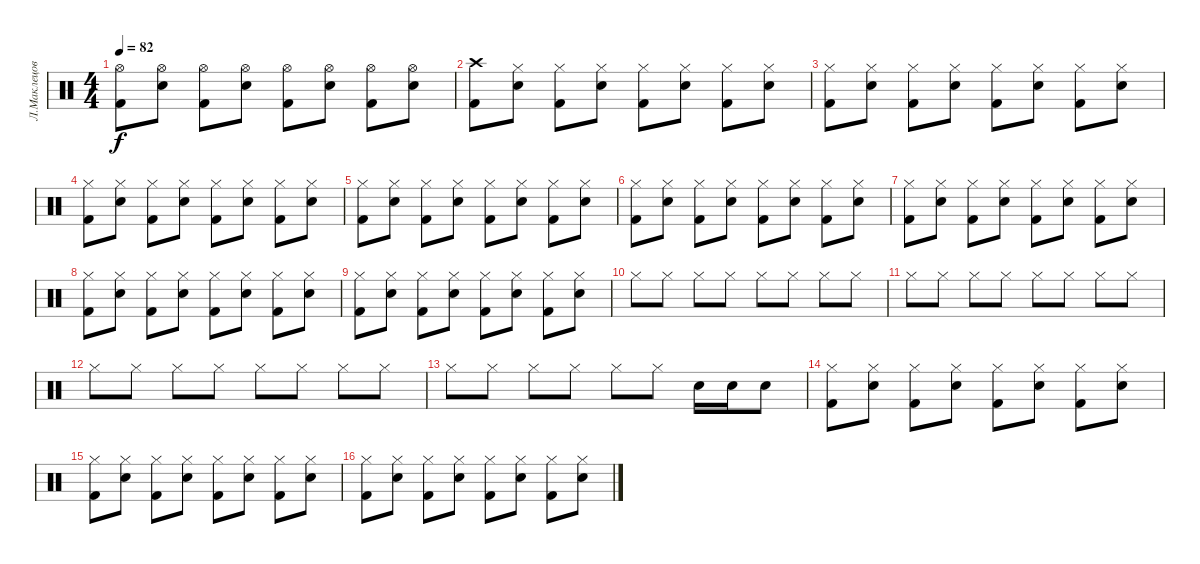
\track ("Л.Маклецова" "Л.Маклецов") {instrument percussion}
\staff {score}
\articulation defaults
\ts (4 4)
\tempo 82
\clef neutral
\ks c
("Hi-Hat (open)" "Kick (hit) 2").8{dy f} ("Hi-Hat (open)" "Snare (hit) 2").8 ("Hi-Hat (open)" "Kick (hit) 2").8 ("Hi-Hat (open)" "Snare (hit) 2").8 ("Hi-Hat (open)" "Kick (hit) 2").8 ("Hi-Hat (open)" "Snare (hit) 2").8 ("Hi-Hat (open)" "Kick (hit) 2").8 ("Hi-Hat (open)" "Snare (hit) 2").8 |
("Crash high (hit)" "Kick (hit) 2").8 ("Hi-Hat (closed)" "Snare (hit) 2").8 ("Hi-Hat (closed)" "Kick (hit) 2").8 ("Hi-Hat (closed)" "Snare (hit) 2").8 ("Hi-Hat (closed)" "Kick (hit) 2").8 ("Hi-Hat (closed)" "Snare (hit) 2").8 ("Hi-Hat (closed)" "Kick (hit) 2").8 ("Hi-Hat (closed)" "Snare (hit) 2").8 |
("Hi-Hat (closed)" "Kick (hit) 2").8 ("Hi-Hat (closed)" "Snare (hit) 2").8 ("Hi-Hat (closed)" "Kick (hit) 2").8 ("Hi-Hat (closed)" "Snare (hit) 2").8 ("Hi-Hat (closed)" "Kick (hit) 2").8 ("Hi-Hat (closed)" "Snare (hit) 2").8 ("Hi-Hat (closed)" "Kick (hit) 2").8 ("Hi-Hat (closed)" "Snare (hit) 2").8 |
("Hi-Hat (closed)" "Kick (hit) 2").8 ("Hi-Hat (closed)" "Snare (hit) 2").8 ("Hi-Hat (closed)" "Kick (hit) 2").8 ("Hi-Hat (closed)" "Snare (hit) 2").8 ("Hi-Hat (closed)" "Kick (hit) 2").8 ("Hi-Hat (closed)" "Snare (hit) 2").8 ("Hi-Hat (closed)" "Kick (hit) 2").8 ("Hi-Hat (closed)" "Snare (hit) 2").8 |
("Hi-Hat (closed)" "Kick (hit) 2").8 ("Hi-Hat (closed)" "Snare (hit) 2").8 ("Hi-Hat (closed)" "Kick (hit) 2").8 ("Hi-Hat (closed)" "Snare (hit) 2").8 ("Hi-Hat (closed)" "Kick (hit) 2").8 ("Hi-Hat (closed)" "Snare (hit) 2").8 ("Hi-Hat (closed)" "Kick (hit) 2").8 ("Hi-Hat (closed)" "Snare (hit) 2").8 |
("Hi-Hat (closed)" "Kick (hit) 2").8 ("Hi-Hat (closed)" "Snare (hit) 2").8 ("Hi-Hat (closed)" "Kick (hit) 2").8 ("Hi-Hat (closed)" "Snare (hit) 2").8 ("Hi-Hat (closed)" "Kick (hit) 2").8 ("Hi-Hat (closed)" "Snare (hit) 2").8 ("Hi-Hat (closed)" "Kick (hit) 2").8 ("Hi-Hat (closed)" "Snare (hit) 2").8 |
("Hi-Hat (closed)" "Kick (hit) 2").8 ("Hi-Hat (closed)" "Snare (hit) 2").8 ("Hi-Hat (closed)" "Kick (hit) 2").8 ("Hi-Hat (closed)" "Snare (hit) 2").8 ("Hi-Hat (closed)" "Kick (hit) 2").8 ("Hi-Hat (closed)" "Snare (hit) 2").8 ("Hi-Hat (closed)" "Kick (hit) 2").8 ("Hi-Hat (closed)" "Snare (hit) 2").8 |
("Hi-Hat (closed)" "Kick (hit) 2").8 ("Hi-Hat (closed)" "Snare (hit) 2").8 ("Hi-Hat (closed)" "Kick (hit) 2").8 ("Hi-Hat (closed)" "Snare (hit) 2").8 ("Hi-Hat (closed)" "Kick (hit) 2").8 ("Hi-Hat (closed)" "Snare (hit) 2").8 ("Hi-Hat (closed)" "Kick (hit) 2").8 ("Hi-Hat (closed)" "Snare (hit) 2").8 |
("Hi-Hat (closed)" "Kick (hit) 2").8 ("Hi-Hat (closed)" "Snare (hit) 2").8 ("Hi-Hat (closed)" "Kick (hit) 2").8 ("Hi-Hat (closed)" "Snare (hit) 2").8 ("Hi-Hat (closed)" "Kick (hit) 2").8 ("Hi-Hat (closed)" "Snare (hit) 2").8 ("Hi-Hat (closed)" "Kick (hit) 2").8 ("Hi-Hat (closed)" "Snare (hit) 2").8 |
"Hi-Hat (closed)".8 "Hi-Hat (closed)".8 "Hi-Hat (closed)".8 "Hi-Hat (closed)".8 "Hi-Hat (closed)".8 "Hi-Hat (closed)".8 "Hi-Hat (closed)".8 "Hi-Hat (closed)".8 |
"Hi-Hat (closed)".8 "Hi-Hat (closed)".8 "Hi-Hat (closed)".8 "Hi-Hat (closed)".8 "Hi-Hat (closed)".8 "Hi-Hat (closed)".8 "Hi-Hat (closed)".8 "Hi-Hat (closed)".8 |
"Hi-Hat (closed)".8 "Hi-Hat (closed)".8 "Hi-Hat (closed)".8 "Hi-Hat (closed)".8 "Hi-Hat (closed)".8 "Hi-Hat (closed)".8 "Hi-Hat (closed)".8 "Hi-Hat (closed)".8 |
"Hi-Hat (closed)".8 "Hi-Hat (closed)".8 "Hi-Hat (closed)".8 "Hi-Hat (closed)".8 "Hi-Hat (closed)".8 "Hi-Hat (closed)".8 "Snare (hit) 2".16 "Snare (hit) 2".16 "Snare (hit) 2".8 |
("Hi-Hat (closed)" "Kick (hit) 2").8 ("Hi-Hat (closed)" "Snare (hit) 2").8 ("Hi-Hat (closed)" "Kick (hit) 2").8 ("Hi-Hat (closed)" "Snare (hit) 2").8 ("Hi-Hat (closed)" "Kick (hit) 2").8 ("Hi-Hat (closed)" "Snare (hit) 2").8 ("Hi-Hat (closed)" "Kick (hit) 2").8 ("Hi-Hat (closed)" "Snare (hit) 2").8 |
("Hi-Hat (closed)" "Kick (hit) 2").8 ("Hi-Hat (closed)" "Snare (hit) 2").8 ("Hi-Hat (closed)" "Kick (hit) 2").8 ("Hi-Hat (closed)" "Snare (hit) 2").8 ("Hi-Hat (closed)" "Kick (hit) 2").8 ("Hi-Hat (closed)" "Snare (hit) 2").8 ("Hi-Hat (closed)" "Kick (hit) 2").8 ("Hi-Hat (closed)" "Snare (hit) 2").8 |
("Hi-Hat (closed)" "Kick (hit) 2").8 ("Hi-Hat (closed)" "Snare (hit) 2").8 ("Hi-Hat (closed)" "Kick (hit) 2").8 ("Hi-Hat (closed)" "Snare (hit) 2").8 ("Hi-Hat (closed)" "Kick (hit) 2").8 ("Hi-Hat (closed)" "Snare (hit) 2").8 ("Hi-Hat (closed)" "Kick (hit) 2").8 ("Hi-Hat (closed)" "Snare (hit) 2").8
